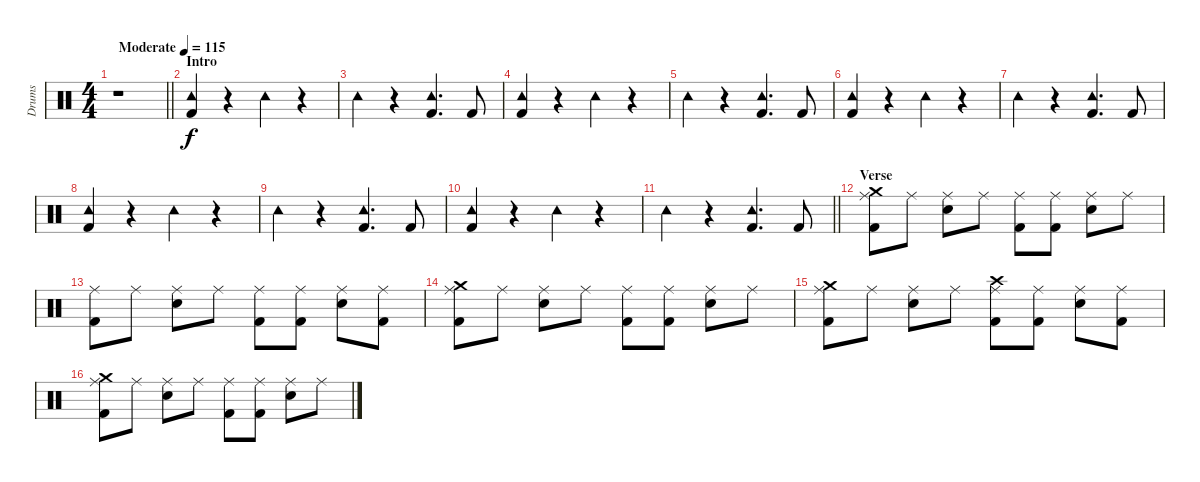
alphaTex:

\track ("Drums" "Drums") {instrument percussion}
\staff {score}
\articulation defaults
\ts (4 4)
\tempo (115 "Moderate")
\clef neutral
\barLineRight lightlight
\ks c
r.1{dy f} |
\section ("" "Intro")
("Tambourine (hit)" "Kick (hit) 2").4 r.4 "Tambourine (hit)".4 r.4 |
"Tambourine (hit)".4 r.4 ("Tambourine (hit)" "Kick (hit) 2").4{d} "Kick (hit) 2".8 |
("Tambourine (hit)" "Kick (hit) 2").4 r.4 "Tambourine (hit)".4 r.4 |
"Tambourine (hit)".4 r.4 ("Tambourine (hit)" "Kick (hit) 2").4{d} "Kick (hit) 2".8 |
("Tambourine (hit)" "Kick (hit) 2").4 r.4 "Tambourine (hit)".4 r.4 |
"Tambourine (hit)".4 r.4 ("Tambourine (hit)" "Kick (hit) 2").4{d} "Kick (hit) 2".8 |
("Tambourine (hit)" "Kick (hit) 2").4 r.4 "Tambourine (hit)".4 r.4 |
"Tambourine (hit)".4 r.4 ("Tambourine (hit)" "Kick (hit) 2").4{d} "Kick (hit) 2".8 |
("Tambourine (hit)" "Kick (hit) 2").4 r.4 "Tambourine (hit)".4 r.4 |
\barLineRight lightlight "Tambourine (hit)".4
r.4 ("Tambourine (hit)" "Kick (hit) 2").4{d} "Kick (hit) 2".8 |
\section ("" "Verse")
("Crash medium (hit)" "Ride (middle)" "Kick (hit) 2").8 "Ride (middle)".8 ("Ride (middle)" "Snare (hit) 2").8 "Ride (middle)".8 ("Ride (middle)" "Kick (hit) 2").8 ("Ride (middle)" "Kick (hit) 2").8 ("Ride (middle)" "Snare (hit) 2").8 "Ride (middle)".8 |
("Ride (middle)" "Kick (hit) 2").8 "Ride (middle)".8 ("Ride (middle)" "Snare (hit) 2").8 "Ride (middle)".8 ("Ride (middle)" "Kick (hit) 2").8 ("Ride (middle)" "Kick (hit) 2").8 ("Ride (middle)" "Snare (hit) 2").8 ("Ride (middle)" "Kick (hit) 2").8 |
("Crash medium (hit)" "Ride (middle)" "Kick (hit) 2").8 "Ride (middle)".8 ("Ride (middle)" "Snare (hit) 2").8 "Ride (middle)".8 ("Ride (middle)" "Kick (hit) 2").8 ("Ride (middle)" "Kick (hit) 2").8 ("Ride (middle)" "Snare (hit) 2").8 "Ride (middle)".8 |
("Crash medium (hit)" "Ride (middle)" "Kick (hit) 2").8 "Ride (middle)".8 ("Ride (middle)" "Snare (hit) 2").8 "Ride (middle)".8 ("Crash high (hit)" "Ride (middle)" "Kick (hit) 2").8 ("Ride (middle)" "Kick (hit) 2").8 ("Ride (middle)" "Snare (hit) 2").8 ("Ride (middle)" "Kick (hit) 2").8 |
("Crash medium (hit)" "Ride (middle)" "Kick (hit) 2").8 "Ride (middle)".8 ("Ride (middle)" "Snare (hit) 2").8 "Ride (middle)".8 ("Ride (middle)" "Kick (hit) 2").8 ("Ride (middle)" "Kick (hit) 2").8 ("Ride (middle)" "Snare (hit) 2").8 "Ride (middle)".8
